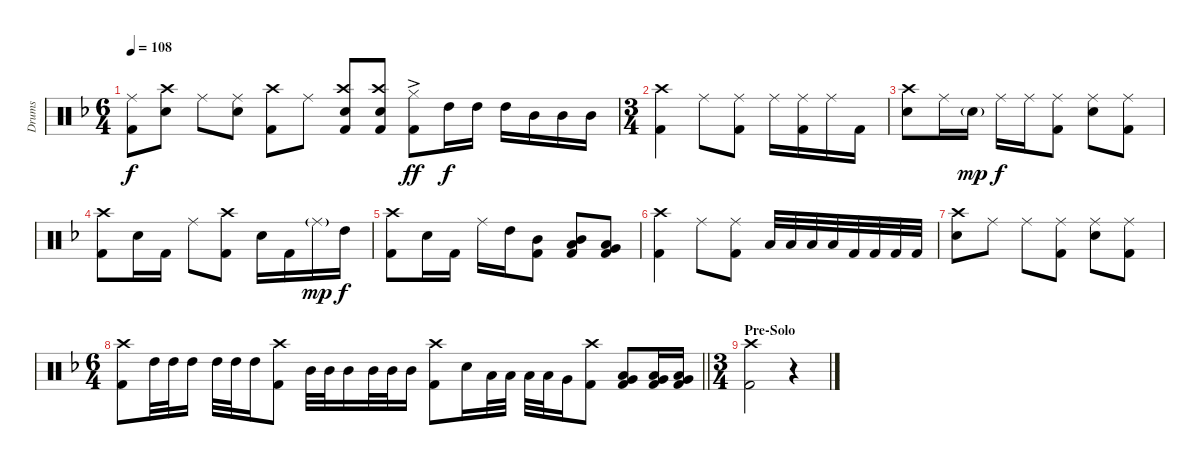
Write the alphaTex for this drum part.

\track ("Drums" "Drums") {instrument percussion}
\staff {score}
\articulation defaults
\ts (6 4)
\tempo 108
\clef neutral
\ks dminor
("Ride (middle)" "Kick (hit) 2").8{dy f} ("Crash high (hit)" "Snare (hit) 2").8 "Ride (middle)".8 ("Ride (middle)" "Snare (hit) 2").8 ("Crash high (hit)" "Kick (hit) 2").8 "Ride (middle)".8 ("Crash high (hit)" "Snare (hit) 2" "Kick (hit) 2").8 ("Crash high (hit)" "Snare (hit) 2" "Kick (hit) 2").8 ("Hi-Hat (closed)"{ac} "Kick (hit) 2").8{dy ff} "High Tom (hit)".16{dy f} "High Tom (hit)".16 "High Tom (hit)".16 "Mid Tom (hit)".16 "Mid Tom (hit)".16 "Mid Tom (hit)".16 |
\ts (3 4)
("Crash high (hit)" "Kick (hit) 2").4 "Ride (middle)".8 ("Ride (middle)" "Kick (hit) 2").8 "Ride (middle)".16 ("Ride (middle)" "Kick (hit) 2").16 "Ride (middle)".16 "Kick (hit) 2".16 |
("Crash high (hit)" "Snare (hit) 2").8 "Ride (middle)".16 "Snare (hit) 2"{g}.16{dy mp} "Ride (middle)".16{dy f} "Ride (middle)".16 ("Ride (middle)" "Kick (hit) 2").8 ("Ride (middle)" "Snare (hit) 2").8 ("Ride (middle)" "Kick (hit) 2").8 |
("Crash high (hit)" "Kick (hit) 2").8 "Snare (hit) 2".16 "Kick (hit) 2".16 "Ride (middle)".8 ("Crash high (hit)" "Kick (hit) 2").8 "Snare (hit) 2".16 "Kick (hit) 2".16 "Ride (middle)"{g}.16{dy mp} "High Tom (hit)".16{dy f} |
("Crash high (hit)" "Kick (hit) 2").8 "Snare (hit) 2".16 "Kick (hit) 2".16 "Ride (middle)".16 "High Tom (hit)".16 ("Mid Tom (hit)" "Kick (hit) 2").8 ("Mid Tom (hit)" "Low Tom (hit)" "Kick (hit) 2").8 ("Low Tom (hit)" "Very Low Tom (hit)" "Kick (hit) 2").8 |
("Crash high (hit)" "Kick (hit) 2").4 "Ride (middle)".8 ("Ride (middle)" "Kick (hit) 2").8 "Low Tom (hit)".32 "Low Tom (hit)".32 "Low Tom (hit)".32 "Low Tom (hit)".32 "Kick (hit) 2".32 "Kick (hit) 2".32 "Kick (hit) 2".32 "Kick (hit) 2".32 |
("Crash high (hit)" "Snare (hit) 2").8 "Ride (middle)".8 "Ride (middle)".8 ("Ride (middle)" "Kick (hit) 2").8 ("Ride (middle)" "Snare (hit) 2").8 ("Ride (middle)" "Kick (hit) 2").8 |
\ts (6 4)
\barLineRight lightlight
("Crash high (hit)" "Kick (hit) 2").8 "High Tom (hit)".32 "High Tom (hit)".32 "High Tom (hit)".16 "High Tom (hit)".32 "High Tom (hit)".32 "High Tom (hit)".16 ("Crash high (hit)" "Kick (hit) 2").8 "Mid Tom (hit)".32 "Mid Tom (hit)".32 "Mid Tom (hit)".16 "Mid Tom (hit)".32 "Mid Tom (hit)".32 "Mid Tom (hit)".16 ("Crash high (hit)" "Kick (hit) 2").8 "Snare (hit) 2".16 "Low Tom (hit)".32 "Low Tom (hit)".32 "Low Tom (hit)".32 "Low Tom (hit)".32 "Very Low Tom (hit)".16 ("Crash high (hit)" "Kick (hit) 2").8 ("Low Tom (hit)" "Very Low Tom (hit)" "Kick (hit) 2").8 ("Low Tom (hit)" "Very Low Tom (hit)" "Kick (hit) 2").16 ("Low Tom (hit)" "Very Low Tom (hit)" "Kick (hit) 2").16 |
\ts (3 4)
\section ("" "Pre-Solo")
("Crash high (hit)" "Kick (hit) 2").2 r.4
